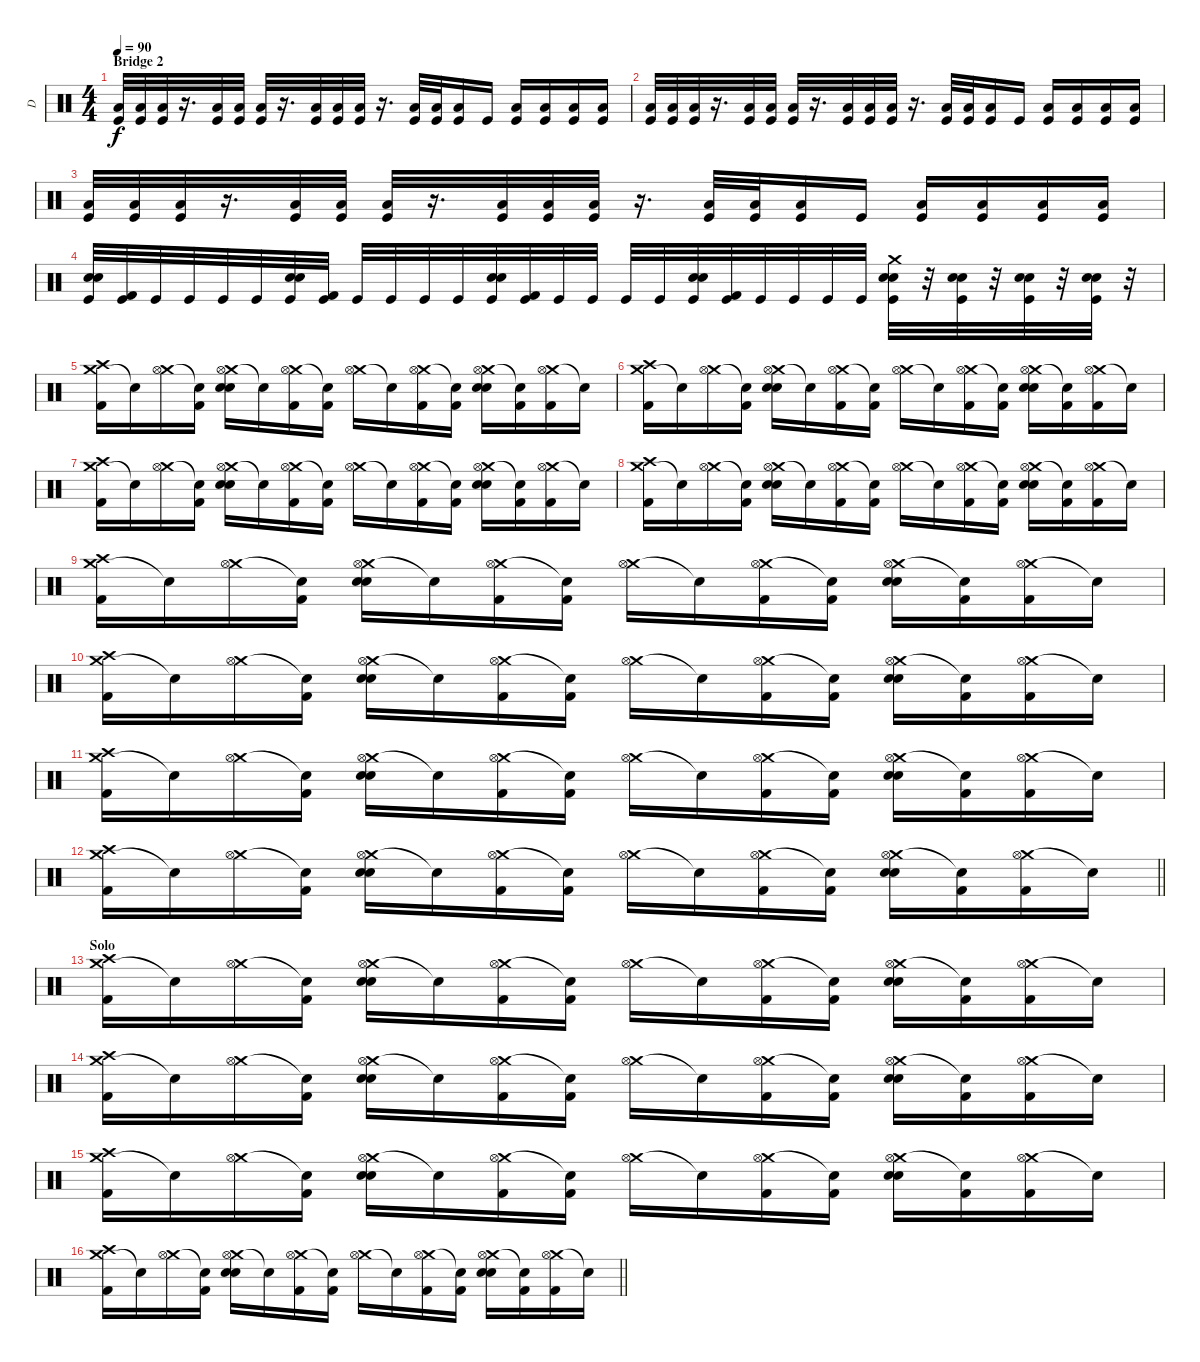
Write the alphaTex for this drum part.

\track ("D" "D") {instrument percussion}
\staff {score}
\articulation defaults
\ts (4 4)
\section ("" "Bridge 2")
\tempo 90
\clef neutral
\ks c
("Low Floor Tom (hit)" "Kick (hit)").32{dy f} ("Low Floor Tom (hit)" "Kick (hit)").32 ("Low Floor Tom (hit)" "Kick (hit)").32 r.16{d} ("Low Floor Tom (hit)" "Kick (hit)").32 ("Low Floor Tom (hit)" "Kick (hit)").32 ("Low Floor Tom (hit)" "Kick (hit)").32 r.16{d} ("Low Floor Tom (hit)" "Kick (hit)").32 ("Low Floor Tom (hit)" "Kick (hit)").32 ("Low Floor Tom (hit)" "Kick (hit)").32 r.16{d} ("Low Floor Tom (hit)" "Kick (hit)").32 ("Low Floor Tom (hit)" "Kick (hit)").32 ("Low Floor Tom (hit)" "Kick (hit)").16 "Kick (hit)".16 ("Low Floor Tom (hit)" "Kick (hit)").16 ("Low Floor Tom (hit)" "Kick (hit)").16 ("Low Floor Tom (hit)" "Kick (hit)").16 ("Low Floor Tom (hit)" "Kick (hit)").16 |
("Low Floor Tom (hit)" "Kick (hit)").32 ("Low Floor Tom (hit)" "Kick (hit)").32 ("Low Floor Tom (hit)" "Kick (hit)").32 r.16{d} ("Low Floor Tom (hit)" "Kick (hit)").32 ("Low Floor Tom (hit)" "Kick (hit)").32 ("Low Floor Tom (hit)" "Kick (hit)").32 r.16{d} ("Low Floor Tom (hit)" "Kick (hit)").32 ("Low Floor Tom (hit)" "Kick (hit)").32 ("Low Floor Tom (hit)" "Kick (hit)").32 r.16{d} ("Low Floor Tom (hit)" "Kick (hit)").32 ("Low Floor Tom (hit)" "Kick (hit)").32 ("Low Floor Tom (hit)" "Kick (hit)").16 "Kick (hit)".16 ("Low Floor Tom (hit)" "Kick (hit)").16 ("Low Floor Tom (hit)" "Kick (hit)").16 ("Low Floor Tom (hit)" "Kick (hit)").16 ("Low Floor Tom (hit)" "Kick (hit)").16 |
("Low Floor Tom (hit)" "Kick (hit)").32 ("Low Floor Tom (hit)" "Kick (hit)").32 ("Low Floor Tom (hit)" "Kick (hit)").32 r.16{d} ("Low Floor Tom (hit)" "Kick (hit)").32 ("Low Floor Tom (hit)" "Kick (hit)").32 ("Low Floor Tom (hit)" "Kick (hit)").32 r.16{d} ("Low Floor Tom (hit)" "Kick (hit)").32 ("Low Floor Tom (hit)" "Kick (hit)").32 ("Low Floor Tom (hit)" "Kick (hit)").32 r.16{d} ("Low Floor Tom (hit)" "Kick (hit)").32 ("Low Floor Tom (hit)" "Kick (hit)").32 ("Low Floor Tom (hit)" "Kick (hit)").16 "Kick (hit)".16 ("Low Floor Tom (hit)" "Kick (hit)").16 ("Low Floor Tom (hit)" "Kick (hit)").16 ("Low Floor Tom (hit)" "Kick (hit)").16 ("Low Floor Tom (hit)" "Kick (hit)").16 |
("Electric Snare (hit)" "Electric Snare (hit)" "Kick (hit)").32 ("Kick (hit) 2" "Kick (hit)").32 "Kick (hit)".32 "Kick (hit)".32 "Kick (hit)".32 "Kick (hit)".32 ("Electric Snare (hit)" "Electric Snare (hit)" "Kick (hit)").32 ("Kick (hit) 2" "Kick (hit)").32 "Kick (hit)".32 "Kick (hit)".32 "Kick (hit)".32 "Kick (hit)".32 ("Electric Snare (hit)" "Electric Snare (hit)" "Kick (hit)").32 ("Kick (hit) 2" "Kick (hit)").32 "Kick (hit)".32 "Kick (hit)".32 "Kick (hit)".32 "Kick (hit)".32 ("Electric Snare (hit)" "Electric Snare (hit)" "Kick (hit)").32 ("Kick (hit) 2" "Kick (hit)").32 "Kick (hit)".32 "Kick (hit)".32 "Kick (hit)".32 "Kick (hit)".32 ("Crash medium (hit)" "Electric Snare (hit)" "Electric Snare (hit)" "Kick (hit)").32 r.32 ("Electric Snare (hit)" "Electric Snare (hit)" "Kick (hit)").32 r.32 ("Electric Snare (hit)" "Electric Snare (hit)" "Kick (hit)").32 r.32 ("Electric Snare (hit)" "Electric Snare (hit)" "Kick (hit)").32 r.32 |
("Crash medium (hit)" "Crash high (hit)" "Kick (hit) 2").16 "Snare (hit)"{t}.16 ("Crash medium (hit)" "Hi-Hat (open)").16 ("Snare (hit)"{t} "Kick (hit) 2").16 ("Crash medium (hit)" "Electric Snare (hit)" "Electric Snare (hit)" "Hi-Hat (open)").16 "Snare (hit)"{t}.16 ("Crash medium (hit)" "Kick (hit) 2" "Hi-Hat (open)").16 ("Snare (hit)"{t} "Kick (hit) 2").16 ("Crash medium (hit)" "Hi-Hat (open)").16 "Snare (hit)"{t}.16 ("Crash medium (hit)" "Kick (hit) 2" "Hi-Hat (open)").16 ("Snare (hit)"{t} "Kick (hit) 2").16 ("Crash medium (hit)" "Electric Snare (hit)" "Electric Snare (hit)" "Hi-Hat (open)").16 ("Snare (hit)"{t} "Kick (hit) 2").16 ("Crash medium (hit)" "Kick (hit) 2" "Hi-Hat (open)").16 "Snare (hit)"{t}.16 |
("Crash medium (hit)" "Crash high (hit)" "Kick (hit) 2").16 "Snare (hit)"{t}.16 ("Crash medium (hit)" "Hi-Hat (open)").16 ("Snare (hit)"{t} "Kick (hit) 2").16 ("Crash medium (hit)" "Electric Snare (hit)" "Electric Snare (hit)" "Hi-Hat (open)").16 "Snare (hit)"{t}.16 ("Crash medium (hit)" "Kick (hit) 2" "Hi-Hat (open)").16 ("Snare (hit)"{t} "Kick (hit) 2").16 ("Crash medium (hit)" "Hi-Hat (open)").16 "Snare (hit)"{t}.16 ("Crash medium (hit)" "Kick (hit) 2" "Hi-Hat (open)").16 ("Snare (hit)"{t} "Kick (hit) 2").16 ("Crash medium (hit)" "Electric Snare (hit)" "Electric Snare (hit)" "Hi-Hat (open)").16 ("Snare (hit)"{t} "Kick (hit) 2").16 ("Crash medium (hit)" "Kick (hit) 2" "Hi-Hat (open)").16 "Snare (hit)"{t}.16 |
("Crash medium (hit)" "Crash high (hit)" "Kick (hit) 2").16 "Snare (hit)"{t}.16 ("Crash medium (hit)" "Hi-Hat (open)").16 ("Snare (hit)"{t} "Kick (hit) 2").16 ("Crash medium (hit)" "Electric Snare (hit)" "Electric Snare (hit)" "Hi-Hat (open)").16 "Snare (hit)"{t}.16 ("Crash medium (hit)" "Kick (hit) 2" "Hi-Hat (open)").16 ("Snare (hit)"{t} "Kick (hit) 2").16 ("Crash medium (hit)" "Hi-Hat (open)").16 "Snare (hit)"{t}.16 ("Crash medium (hit)" "Kick (hit) 2" "Hi-Hat (open)").16 ("Snare (hit)"{t} "Kick (hit) 2").16 ("Crash medium (hit)" "Electric Snare (hit)" "Electric Snare (hit)" "Hi-Hat (open)").16 ("Snare (hit)"{t} "Kick (hit) 2").16 ("Crash medium (hit)" "Kick (hit) 2" "Hi-Hat (open)").16 "Snare (hit)"{t}.16 |
("Crash medium (hit)" "Crash high (hit)" "Kick (hit) 2").16 "Snare (hit)"{t}.16 ("Crash medium (hit)" "Hi-Hat (open)").16 ("Snare (hit)"{t} "Kick (hit) 2").16 ("Crash medium (hit)" "Electric Snare (hit)" "Electric Snare (hit)" "Hi-Hat (open)").16 "Snare (hit)"{t}.16 ("Crash medium (hit)" "Kick (hit) 2" "Hi-Hat (open)").16 ("Snare (hit)"{t} "Kick (hit) 2").16 ("Crash medium (hit)" "Hi-Hat (open)").16 "Snare (hit)"{t}.16 ("Crash medium (hit)" "Kick (hit) 2" "Hi-Hat (open)").16 ("Snare (hit)"{t} "Kick (hit) 2").16 ("Crash medium (hit)" "Electric Snare (hit)" "Electric Snare (hit)" "Hi-Hat (open)").16 ("Snare (hit)"{t} "Kick (hit) 2").16 ("Crash medium (hit)" "Kick (hit) 2" "Hi-Hat (open)").16 "Snare (hit)"{t}.16 |
("Crash medium (hit)" "Crash high (hit)" "Kick (hit) 2").16 "Snare (hit)"{t}.16 ("Crash medium (hit)" "Hi-Hat (open)").16 ("Snare (hit)"{t} "Kick (hit) 2").16 ("Crash medium (hit)" "Electric Snare (hit)" "Electric Snare (hit)" "Hi-Hat (open)").16 "Snare (hit)"{t}.16 ("Crash medium (hit)" "Kick (hit) 2" "Hi-Hat (open)").16 ("Snare (hit)"{t} "Kick (hit) 2").16 ("Crash medium (hit)" "Hi-Hat (open)").16 "Snare (hit)"{t}.16 ("Crash medium (hit)" "Kick (hit) 2" "Hi-Hat (open)").16 ("Snare (hit)"{t} "Kick (hit) 2").16 ("Crash medium (hit)" "Electric Snare (hit)" "Electric Snare (hit)" "Hi-Hat (open)").16 ("Snare (hit)"{t} "Kick (hit) 2").16 ("Crash medium (hit)" "Kick (hit) 2" "Hi-Hat (open)").16 "Snare (hit)"{t}.16 |
("Crash medium (hit)" "Crash high (hit)" "Kick (hit) 2").16 "Snare (hit)"{t}.16 ("Crash medium (hit)" "Hi-Hat (open)").16 ("Snare (hit)"{t} "Kick (hit) 2").16 ("Crash medium (hit)" "Electric Snare (hit)" "Electric Snare (hit)" "Hi-Hat (open)").16 "Snare (hit)"{t}.16 ("Crash medium (hit)" "Kick (hit) 2" "Hi-Hat (open)").16 ("Snare (hit)"{t} "Kick (hit) 2").16 ("Crash medium (hit)" "Hi-Hat (open)").16 "Snare (hit)"{t}.16 ("Crash medium (hit)" "Kick (hit) 2" "Hi-Hat (open)").16 ("Snare (hit)"{t} "Kick (hit) 2").16 ("Crash medium (hit)" "Electric Snare (hit)" "Electric Snare (hit)" "Hi-Hat (open)").16 ("Snare (hit)"{t} "Kick (hit) 2").16 ("Crash medium (hit)" "Kick (hit) 2" "Hi-Hat (open)").16 "Snare (hit)"{t}.16 |
("Crash medium (hit)" "Crash high (hit)" "Kick (hit) 2").16 "Snare (hit)"{t}.16 ("Crash medium (hit)" "Hi-Hat (open)").16 ("Snare (hit)"{t} "Kick (hit) 2").16 ("Crash medium (hit)" "Electric Snare (hit)" "Electric Snare (hit)" "Hi-Hat (open)").16 "Snare (hit)"{t}.16 ("Crash medium (hit)" "Kick (hit) 2" "Hi-Hat (open)").16 ("Snare (hit)"{t} "Kick (hit) 2").16 ("Crash medium (hit)" "Hi-Hat (open)").16 "Snare (hit)"{t}.16 ("Crash medium (hit)" "Kick (hit) 2" "Hi-Hat (open)").16 ("Snare (hit)"{t} "Kick (hit) 2").16 ("Crash medium (hit)" "Electric Snare (hit)" "Electric Snare (hit)" "Hi-Hat (open)").16 ("Snare (hit)"{t} "Kick (hit) 2").16 ("Crash medium (hit)" "Kick (hit) 2" "Hi-Hat (open)").16 "Snare (hit)"{t}.16 |
\barLineRight lightlight
("Crash medium (hit)" "Crash high (hit)" "Kick (hit) 2").16 "Snare (hit)"{t}.16 ("Crash medium (hit)" "Hi-Hat (open)").16 ("Snare (hit)"{t} "Kick (hit) 2").16 ("Crash medium (hit)" "Electric Snare (hit)" "Electric Snare (hit)" "Hi-Hat (open)").16 "Snare (hit)"{t}.16 ("Crash medium (hit)" "Kick (hit) 2" "Hi-Hat (open)").16 ("Snare (hit)"{t} "Kick (hit) 2").16 ("Crash medium (hit)" "Hi-Hat (open)").16 "Snare (hit)"{t}.16 ("Crash medium (hit)" "Kick (hit) 2" "Hi-Hat (open)").16 ("Snare (hit)"{t} "Kick (hit) 2").16 ("Crash medium (hit)" "Electric Snare (hit)" "Electric Snare (hit)" "Hi-Hat (open)").16 ("Snare (hit)"{t} "Kick (hit) 2").16 ("Crash medium (hit)" "Kick (hit) 2" "Hi-Hat (open)").16 "Snare (hit)"{t}.16 |
\section ("" "Solo")
("Crash medium (hit)" "Crash high (hit)" "Kick (hit) 2").16 "Snare (hit)"{t}.16 ("Crash medium (hit)" "Hi-Hat (open)").16 ("Snare (hit)"{t} "Kick (hit) 2").16 ("Crash medium (hit)" "Electric Snare (hit)" "Electric Snare (hit)" "Hi-Hat (open)").16 "Snare (hit)"{t}.16 ("Crash medium (hit)" "Kick (hit) 2" "Hi-Hat (open)").16 ("Snare (hit)"{t} "Kick (hit) 2").16 ("Crash medium (hit)" "Hi-Hat (open)").16 "Snare (hit)"{t}.16 ("Crash medium (hit)" "Kick (hit) 2" "Hi-Hat (open)").16 ("Snare (hit)"{t} "Kick (hit) 2").16 ("Crash medium (hit)" "Electric Snare (hit)" "Electric Snare (hit)" "Hi-Hat (open)").16 ("Snare (hit)"{t} "Kick (hit) 2").16 ("Crash medium (hit)" "Kick (hit) 2" "Hi-Hat (open)").16 "Snare (hit)"{t}.16 |
("Crash medium (hit)" "Crash high (hit)" "Kick (hit) 2").16 "Snare (hit)"{t}.16 ("Crash medium (hit)" "Hi-Hat (open)").16 ("Snare (hit)"{t} "Kick (hit) 2").16 ("Crash medium (hit)" "Electric Snare (hit)" "Electric Snare (hit)" "Hi-Hat (open)").16 "Snare (hit)"{t}.16 ("Crash medium (hit)" "Kick (hit) 2" "Hi-Hat (open)").16 ("Snare (hit)"{t} "Kick (hit) 2").16 ("Crash medium (hit)" "Hi-Hat (open)").16 "Snare (hit)"{t}.16 ("Crash medium (hit)" "Kick (hit) 2" "Hi-Hat (open)").16 ("Snare (hit)"{t} "Kick (hit) 2").16 ("Crash medium (hit)" "Electric Snare (hit)" "Electric Snare (hit)" "Hi-Hat (open)").16 ("Snare (hit)"{t} "Kick (hit) 2").16 ("Crash medium (hit)" "Kick (hit) 2" "Hi-Hat (open)").16 "Snare (hit)"{t}.16 |
("Crash medium (hit)" "Crash high (hit)" "Kick (hit) 2").16 "Snare (hit)"{t}.16 ("Crash medium (hit)" "Hi-Hat (open)").16 ("Snare (hit)"{t} "Kick (hit) 2").16 ("Crash medium (hit)" "Electric Snare (hit)" "Electric Snare (hit)" "Hi-Hat (open)").16 "Snare (hit)"{t}.16 ("Crash medium (hit)" "Kick (hit) 2" "Hi-Hat (open)").16 ("Snare (hit)"{t} "Kick (hit) 2").16 ("Crash medium (hit)" "Hi-Hat (open)").16 "Snare (hit)"{t}.16 ("Crash medium (hit)" "Kick (hit) 2" "Hi-Hat (open)").16 ("Snare (hit)"{t} "Kick (hit) 2").16 ("Crash medium (hit)" "Electric Snare (hit)" "Electric Snare (hit)" "Hi-Hat (open)").16 ("Snare (hit)"{t} "Kick (hit) 2").16 ("Crash medium (hit)" "Kick (hit) 2" "Hi-Hat (open)").16 "Snare (hit)"{t}.16 |
\barLineRight lightlight
("Crash medium (hit)" "Crash high (hit)" "Kick (hit) 2").16 "Snare (hit)"{t}.16 ("Crash medium (hit)" "Hi-Hat (open)").16 ("Snare (hit)"{t} "Kick (hit) 2").16 ("Crash medium (hit)" "Electric Snare (hit)" "Electric Snare (hit)" "Hi-Hat (open)").16 "Snare (hit)"{t}.16 ("Crash medium (hit)" "Kick (hit) 2" "Hi-Hat (open)").16 ("Snare (hit)"{t} "Kick (hit) 2").16 ("Crash medium (hit)" "Hi-Hat (open)").16 "Snare (hit)"{t}.16 ("Crash medium (hit)" "Kick (hit) 2" "Hi-Hat (open)").16 ("Snare (hit)"{t} "Kick (hit) 2").16 ("Crash medium (hit)" "Electric Snare (hit)" "Electric Snare (hit)" "Hi-Hat (open)").16 ("Snare (hit)"{t} "Kick (hit) 2").16 ("Crash medium (hit)" "Kick (hit) 2" "Hi-Hat (open)").16 "Snare (hit)"{t}.16
